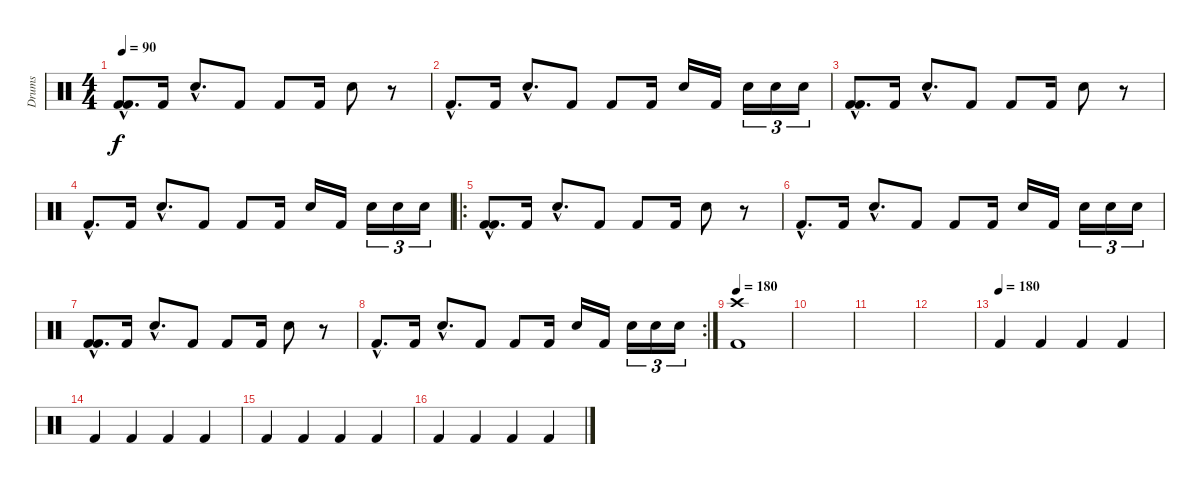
\track ("Drums" "Drums") {instrument percussion}
\staff {score}
\articulation defaults
\ts (4 4)
\tempo 90
\clef neutral
\ks c
("Kick (hit) 2"{hac} "Kick (hit) 2"{hac}).8{d dy f} "Kick (hit) 2".16 "Electric Snare (hit)"{hac}.8{d} "Kick (hit) 2".8 "Kick (hit) 2".8 "Kick (hit) 2".16 "Electric Snare (hit)".8 r.8 |
"Kick (hit) 2"{hac}.8{d} "Kick (hit) 2".16 "Electric Snare (hit)"{hac}.8{d} "Kick (hit) 2".8 "Kick (hit) 2".8 "Kick (hit) 2".16 "Electric Snare (hit)".16 "Kick (hit) 2".16 "Electric Snare (hit)".16{tu (3 2)} "Electric Snare (hit)".16{tu (3 2)} "Electric Snare (hit)".16{tu (3 2)} |
("Kick (hit) 2"{hac} "Kick (hit) 2"{hac}).8{d} "Kick (hit) 2".16 "Electric Snare (hit)"{hac}.8{d} "Kick (hit) 2".8 "Kick (hit) 2".8 "Kick (hit) 2".16 "Electric Snare (hit)".8 r.8 |
"Kick (hit) 2"{hac}.8{d} "Kick (hit) 2".16 "Electric Snare (hit)"{hac}.8{d} "Kick (hit) 2".8 "Kick (hit) 2".8 "Kick (hit) 2".16 "Electric Snare (hit)".16 "Kick (hit) 2".16 "Electric Snare (hit)".16{tu (3 2)} "Electric Snare (hit)".16{tu (3 2)} "Electric Snare (hit)".16{tu (3 2)} |
\ro
("Kick (hit) 2"{hac} "Kick (hit) 2"{hac}).8{d} "Kick (hit) 2".16 "Electric Snare (hit)"{hac}.8{d} "Kick (hit) 2".8 "Kick (hit) 2".8 "Kick (hit) 2".16 "Electric Snare (hit)".8 r.8 |
"Kick (hit) 2"{hac}.8{d} "Kick (hit) 2".16 "Electric Snare (hit)"{hac}.8{d} "Kick (hit) 2".8 "Kick (hit) 2".8 "Kick (hit) 2".16 "Electric Snare (hit)".16 "Kick (hit) 2".16 "Electric Snare (hit)".16{tu (3 2)} "Electric Snare (hit)".16{tu (3 2)} "Electric Snare (hit)".16{tu (3 2)} |
("Kick (hit) 2"{hac} "Kick (hit) 2"{hac}).8{d} "Kick (hit) 2".16 "Electric Snare (hit)"{hac}.8{d} "Kick (hit) 2".8 "Kick (hit) 2".8 "Kick (hit) 2".16 "Electric Snare (hit)".8 r.8 |
\rc 2 "Kick (hit) 2"{hac}.8{d} "Kick (hit) 2".16 "Electric Snare (hit)"{hac}.8{d} "Kick (hit) 2".8 "Kick (hit) 2".8 "Kick (hit) 2".16 "Electric Snare (hit)".16 "Kick (hit) 2".16 "Electric Snare (hit)".16{tu (3 2)} "Electric Snare (hit)".16{tu (3 2)} "Electric Snare (hit)".16{tu (3 2)}
|
\tempo 180
("Crash high (hit)" "Kick (hit) 2").1 |
|
|
|
\tempo (180)
"Kick (hit) 2".4 "Kick (hit) 2".4 "Kick (hit) 2".4 "Kick (hit) 2".4 |
"Kick (hit) 2".4 "Kick (hit) 2".4 "Kick (hit) 2".4 "Kick (hit) 2".4 |
"Kick (hit) 2".4 "Kick (hit) 2".4 "Kick (hit) 2".4 "Kick (hit) 2".4 |
"Kick (hit) 2".4 "Kick (hit) 2".4 "Kick (hit) 2".4 "Kick (hit) 2".4
